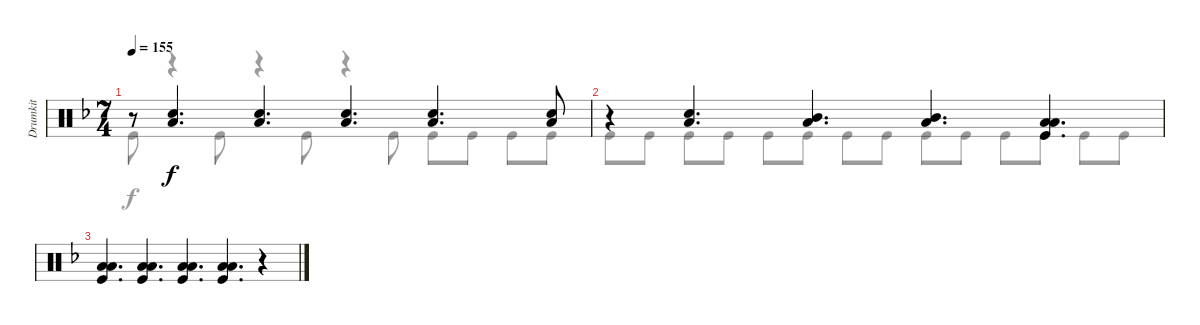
\track ("Drumkit" "Drumkit") {instrument percussion}
\staff {score}
\articulation defaults
\voice
\ts (7 4)
\tempo 155
\clef neutral
\ks dminor
r.8{dy f} ("Snare (hit) 2" "Low Floor Tom (hit)").4{d} ("Snare (hit) 2" "Low Floor Tom (hit)").4{d} ("Snare (hit) 2" "Low Floor Tom (hit)").4{d} ("Snare (hit) 2" "Low Floor Tom (hit)").4{d} ("Snare (hit) 2" "Low Floor Tom (hit)").8 |
r.4 ("Snare (hit) 2" "Low Floor Tom (hit)").4{d} ("Low Floor Tom (hit)" "Mid Tom (hit)").4{d} ("Low Floor Tom (hit)" "Mid Tom (hit)").4{d} ("Low Floor Tom (hit)" "Low Tom (hit)" "Kick (hit)").4{d} |
("Low Floor Tom (hit)" "Low Tom (hit)" "Kick (hit)").4{d} ("Low Floor Tom (hit)" "Low Tom (hit)" "Kick (hit)").4{d} ("Low Floor Tom (hit)" "Low Tom (hit)" "Kick (hit)").4{d} ("Low Floor Tom (hit)" "Low Tom (hit)" "Kick (hit)").4{d} r.4
\voice
\clef neutral
\ottava regular
\simile none
\ks dminor "Kick (hit)".8{dy f}
r.4 "Kick (hit)".8 r.4 "Kick (hit)".8 r.4 "Kick (hit)".8 "Kick (hit)".8 "Kick (hit)".8 "Kick (hit)".8 "Kick (hit)".8 |
"Kick (hit)".8 "Kick (hit)".8 "Kick (hit)".8 "Kick (hit)".8 "Kick (hit)".8 "Kick (hit)".8 "Kick (hit)".8 "Kick (hit)".8 "Kick (hit)".8 "Kick (hit)".8 "Kick (hit)".8 "Kick (hit)".8 "Kick (hit)".8 "Kick (hit)".8 |
